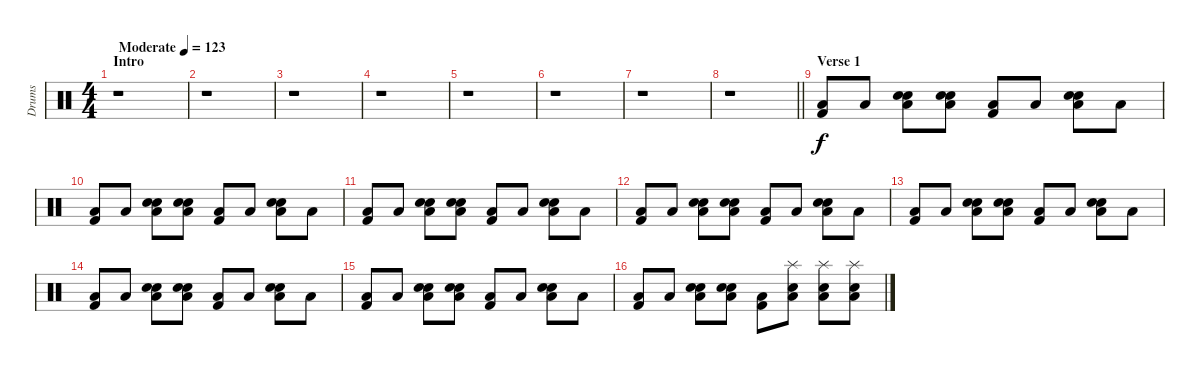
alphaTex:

\track ("Drums" "Drums") {instrument percussion}
\staff {score}
\articulation defaults
\ts (4 4)
\section ("" "Intro")
\tempo (123 "Moderate")
\clef neutral
\ks c
r.1{dy f} |
r.1 |
r.1 |
r.1 |
r.1 |
r.1 |
r.1 |
\barLineRight lightlight
r.1 |
\section ("" "Verse 1")
("Low Floor Tom (hit)" "Kick (hit) 2").8 "Low Floor Tom (hit)".8 ("Electric Snare (hit)" "Electric Snare (hit)" "Low Floor Tom (hit)").8 ("Electric Snare (hit)" "Electric Snare (hit)" "Low Floor Tom (hit)").8 ("Low Floor Tom (hit)" "Kick (hit) 2").8 "Low Floor Tom (hit)".8 ("Electric Snare (hit)" "Electric Snare (hit)" "Low Floor Tom (hit)").8 "Low Floor Tom (hit)".8 |
("Low Floor Tom (hit)" "Kick (hit) 2").8 "Low Floor Tom (hit)".8 ("Electric Snare (hit)" "Electric Snare (hit)" "Low Floor Tom (hit)").8 ("Electric Snare (hit)" "Electric Snare (hit)" "Low Floor Tom (hit)").8 ("Low Floor Tom (hit)" "Kick (hit) 2").8 "Low Floor Tom (hit)".8 ("Electric Snare (hit)" "Electric Snare (hit)" "Low Floor Tom (hit)").8 "Low Floor Tom (hit)".8 |
("Low Floor Tom (hit)" "Kick (hit) 2").8 "Low Floor Tom (hit)".8 ("Electric Snare (hit)" "Electric Snare (hit)" "Low Floor Tom (hit)").8 ("Electric Snare (hit)" "Electric Snare (hit)" "Low Floor Tom (hit)").8 ("Low Floor Tom (hit)" "Kick (hit) 2").8 "Low Floor Tom (hit)".8 ("Electric Snare (hit)" "Electric Snare (hit)" "Low Floor Tom (hit)").8 "Low Floor Tom (hit)".8 |
("Low Floor Tom (hit)" "Kick (hit) 2").8 "Low Floor Tom (hit)".8 ("Electric Snare (hit)" "Electric Snare (hit)" "Low Floor Tom (hit)").8 ("Electric Snare (hit)" "Electric Snare (hit)" "Low Floor Tom (hit)").8 ("Low Floor Tom (hit)" "Kick (hit) 2").8 "Low Floor Tom (hit)".8 ("Electric Snare (hit)" "Electric Snare (hit)" "Low Floor Tom (hit)").8 "Low Floor Tom (hit)".8 |
("Low Floor Tom (hit)" "Kick (hit) 2").8 "Low Floor Tom (hit)".8 ("Electric Snare (hit)" "Electric Snare (hit)" "Low Floor Tom (hit)").8 ("Electric Snare (hit)" "Electric Snare (hit)" "Low Floor Tom (hit)").8 ("Low Floor Tom (hit)" "Kick (hit) 2").8 "Low Floor Tom (hit)".8 ("Electric Snare (hit)" "Electric Snare (hit)" "Low Floor Tom (hit)").8 "Low Floor Tom (hit)".8 |
("Low Floor Tom (hit)" "Kick (hit) 2").8 "Low Floor Tom (hit)".8 ("Electric Snare (hit)" "Electric Snare (hit)" "Low Floor Tom (hit)").8 ("Electric Snare (hit)" "Electric Snare (hit)" "Low Floor Tom (hit)").8 ("Low Floor Tom (hit)" "Kick (hit) 2").8 "Low Floor Tom (hit)".8 ("Electric Snare (hit)" "Electric Snare (hit)" "Low Floor Tom (hit)").8 "Low Floor Tom (hit)".8 |
("Low Floor Tom (hit)" "Kick (hit) 2").8 "Low Floor Tom (hit)".8 ("Electric Snare (hit)" "Electric Snare (hit)" "Low Floor Tom (hit)").8 ("Electric Snare (hit)" "Electric Snare (hit)" "Low Floor Tom (hit)").8 ("Low Floor Tom (hit)" "Kick (hit) 2").8 "Low Floor Tom (hit)".8 ("Electric Snare (hit)" "Electric Snare (hit)" "Low Floor Tom (hit)").8 "Low Floor Tom (hit)".8 |
("Low Floor Tom (hit)" "Kick (hit) 2").8 "Low Floor Tom (hit)".8 ("Electric Snare (hit)" "Electric Snare (hit)" "Low Floor Tom (hit)").8 ("Electric Snare (hit)" "Electric Snare (hit)" "Low Floor Tom (hit)").8 ("Low Floor Tom (hit)" "Kick (hit) 2").8 ("Splash (hit)" "Electric Snare (hit)" "Low Floor Tom (hit)").8 ("Splash (hit)" "Electric Snare (hit)" "Low Floor Tom (hit)").8 ("Splash (hit)" "Electric Snare (hit)" "Low Floor Tom (hit)").8
